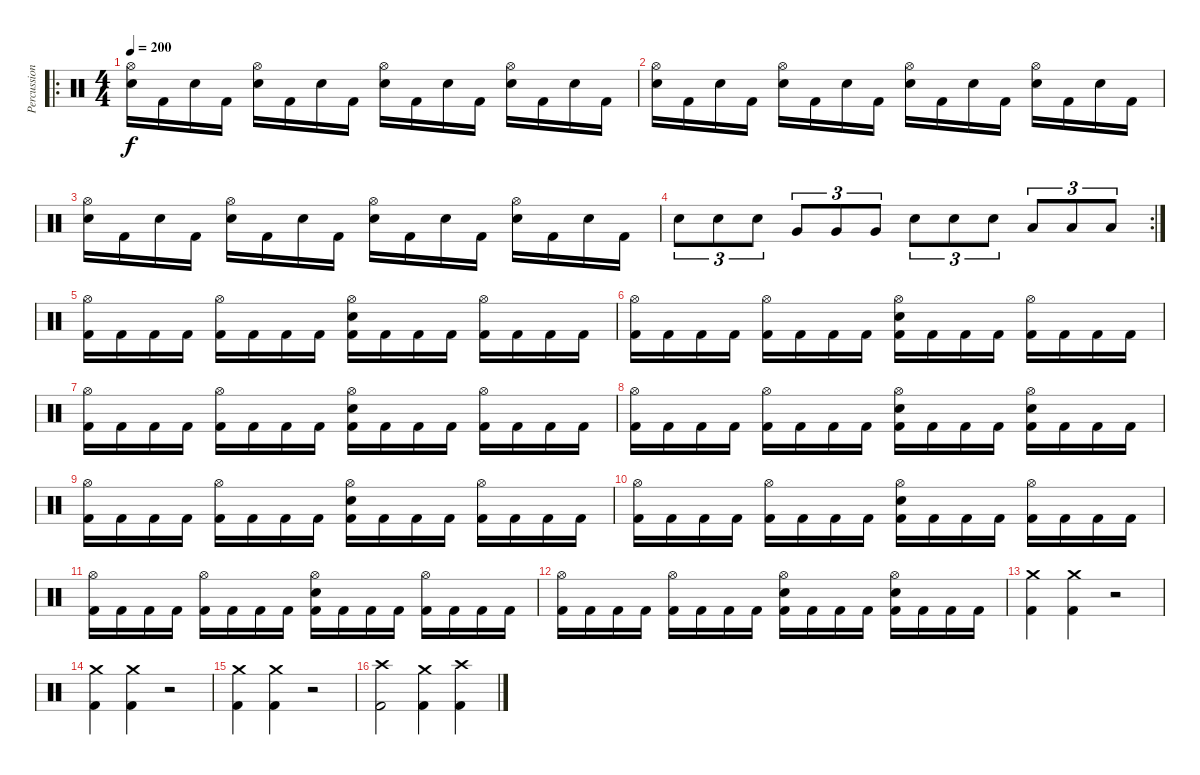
\track ("Percussions" "Percussion") {instrument percussion}
\staff {score}
\articulation defaults
\ro
\ts (4 4)
\tempo 200
\clef neutral
\ks c
("Hi-Hat (open)" "Snare (hit) 2").16{dy f} "Kick (hit) 2".16 "Snare (hit) 2".16 "Kick (hit) 2".16 ("Hi-Hat (open)" "Snare (hit) 2").16 "Kick (hit) 2".16 "Snare (hit) 2".16 "Kick (hit) 2".16 ("Hi-Hat (open)" "Snare (hit) 2").16 "Kick (hit) 2".16 "Snare (hit) 2".16 "Kick (hit) 2".16 ("Hi-Hat (open)" "Snare (hit) 2").16 "Kick (hit) 2".16 "Snare (hit) 2".16 "Kick (hit) 2".16 |
("Hi-Hat (open)" "Snare (hit) 2").16 "Kick (hit) 2".16 "Snare (hit) 2".16 "Kick (hit) 2".16 ("Hi-Hat (open)" "Snare (hit) 2").16 "Kick (hit) 2".16 "Snare (hit) 2".16 "Kick (hit) 2".16 ("Hi-Hat (open)" "Snare (hit) 2").16 "Kick (hit) 2".16 "Snare (hit) 2".16 "Kick (hit) 2".16 ("Hi-Hat (open)" "Snare (hit) 2").16 "Kick (hit) 2".16 "Snare (hit) 2".16 "Kick (hit) 2".16 |
("Hi-Hat (open)" "Snare (hit) 2").16 "Kick (hit) 2".16 "Snare (hit) 2".16 "Kick (hit) 2".16 ("Hi-Hat (open)" "Snare (hit) 2").16 "Kick (hit) 2".16 "Snare (hit) 2".16 "Kick (hit) 2".16 ("Hi-Hat (open)" "Snare (hit) 2").16 "Kick (hit) 2".16 "Snare (hit) 2".16 "Kick (hit) 2".16 ("Hi-Hat (open)" "Snare (hit) 2").16 "Kick (hit) 2".16 "Snare (hit) 2".16 "Kick (hit) 2".16 |
\rc 2 "Snare (hit) 2".8{tu (3 2)} "Snare (hit) 2".8{tu (3 2)} "Snare (hit) 2".8{tu (3 2)} "Very Low Tom (hit)".8{tu (3 2)} "Very Low Tom (hit)".8{tu (3 2)} "Very Low Tom (hit)".8{tu (3 2)} "Snare (hit) 2".8{tu (3 2)} "Snare (hit) 2".8{tu (3 2)} "Snare (hit) 2".8{tu (3 2)} "Low Tom (hit)".8{tu (3 2)} "Low Tom (hit)".8{tu (3 2)} "Low Tom (hit)".8{tu (3 2)}
|
("Hi-Hat (open)" "Kick (hit) 2").16 "Kick (hit) 2".16 "Kick (hit) 2".16 "Kick (hit) 2".16 ("Hi-Hat (open)" "Kick (hit) 2").16 "Kick (hit) 2".16 "Kick (hit) 2".16 "Kick (hit) 2".16 ("Hi-Hat (open)" "Snare (hit) 2" "Kick (hit) 2").16 "Kick (hit) 2".16 "Kick (hit) 2".16 "Kick (hit) 2".16 ("Hi-Hat (open)" "Kick (hit) 2").16 "Kick (hit) 2".16 "Kick (hit) 2".16 "Kick (hit) 2".16 |
("Hi-Hat (open)" "Kick (hit) 2").16 "Kick (hit) 2".16 "Kick (hit) 2".16 "Kick (hit) 2".16 ("Hi-Hat (open)" "Kick (hit) 2").16 "Kick (hit) 2".16 "Kick (hit) 2".16 "Kick (hit) 2".16 ("Hi-Hat (open)" "Snare (hit) 2" "Kick (hit) 2").16 "Kick (hit) 2".16 "Kick (hit) 2".16 "Kick (hit) 2".16 ("Hi-Hat (open)" "Kick (hit) 2").16 "Kick (hit) 2".16 "Kick (hit) 2".16 "Kick (hit) 2".16 |
("Hi-Hat (open)" "Kick (hit) 2").16 "Kick (hit) 2".16 "Kick (hit) 2".16 "Kick (hit) 2".16 ("Hi-Hat (open)" "Kick (hit) 2").16 "Kick (hit) 2".16 "Kick (hit) 2".16 "Kick (hit) 2".16 ("Hi-Hat (open)" "Snare (hit) 2" "Kick (hit) 2").16 "Kick (hit) 2".16 "Kick (hit) 2".16 "Kick (hit) 2".16 ("Hi-Hat (open)" "Kick (hit) 2").16 "Kick (hit) 2".16 "Kick (hit) 2".16 "Kick (hit) 2".16 |
("Hi-Hat (open)" "Kick (hit) 2").16 "Kick (hit) 2".16 "Kick (hit) 2".16 "Kick (hit) 2".16 ("Hi-Hat (open)" "Kick (hit) 2").16 "Kick (hit) 2".16 "Kick (hit) 2".16 "Kick (hit) 2".16 ("Hi-Hat (open)" "Snare (hit) 2" "Kick (hit) 2").16 "Kick (hit) 2".16 "Kick (hit) 2".16 "Kick (hit) 2".16 ("Hi-Hat (open)" "Snare (hit) 2" "Kick (hit) 2").16 "Kick (hit) 2".16 "Kick (hit) 2".16 "Kick (hit) 2".16 |
("Hi-Hat (open)" "Kick (hit) 2").16 "Kick (hit) 2".16 "Kick (hit) 2".16 "Kick (hit) 2".16 ("Hi-Hat (open)" "Kick (hit) 2").16 "Kick (hit) 2".16 "Kick (hit) 2".16 "Kick (hit) 2".16 ("Hi-Hat (open)" "Snare (hit) 2" "Kick (hit) 2").16 "Kick (hit) 2".16 "Kick (hit) 2".16 "Kick (hit) 2".16 ("Hi-Hat (open)" "Kick (hit) 2").16 "Kick (hit) 2".16 "Kick (hit) 2".16 "Kick (hit) 2".16 |
("Hi-Hat (open)" "Kick (hit) 2").16 "Kick (hit) 2".16 "Kick (hit) 2".16 "Kick (hit) 2".16 ("Hi-Hat (open)" "Kick (hit) 2").16 "Kick (hit) 2".16 "Kick (hit) 2".16 "Kick (hit) 2".16 ("Hi-Hat (open)" "Snare (hit) 2" "Kick (hit) 2").16 "Kick (hit) 2".16 "Kick (hit) 2".16 "Kick (hit) 2".16 ("Hi-Hat (open)" "Kick (hit) 2").16 "Kick (hit) 2".16 "Kick (hit) 2".16 "Kick (hit) 2".16 |
("Hi-Hat (open)" "Kick (hit) 2").16 "Kick (hit) 2".16 "Kick (hit) 2".16 "Kick (hit) 2".16 ("Hi-Hat (open)" "Kick (hit) 2").16 "Kick (hit) 2".16 "Kick (hit) 2".16 "Kick (hit) 2".16 ("Hi-Hat (open)" "Snare (hit) 2" "Kick (hit) 2").16 "Kick (hit) 2".16 "Kick (hit) 2".16 "Kick (hit) 2".16 ("Hi-Hat (open)" "Kick (hit) 2").16 "Kick (hit) 2".16 "Kick (hit) 2".16 "Kick (hit) 2".16 |
("Hi-Hat (open)" "Kick (hit) 2").16 "Kick (hit) 2".16 "Kick (hit) 2".16 "Kick (hit) 2".16 ("Hi-Hat (open)" "Kick (hit) 2").16 "Kick (hit) 2".16 "Kick (hit) 2".16 "Kick (hit) 2".16 ("Hi-Hat (open)" "Snare (hit) 2" "Kick (hit) 2").16 "Kick (hit) 2".16 "Kick (hit) 2".16 "Kick (hit) 2".16 ("Hi-Hat (open)" "Snare (hit) 2" "Kick (hit) 2").16 "Kick (hit) 2".16 "Kick (hit) 2".16 "Kick (hit) 2".16 |
("Crash medium (hit)" "Kick (hit) 2").4 ("Crash medium (hit)" "Kick (hit) 2").4 r.2 |
("Crash medium (hit)" "Kick (hit) 2").4 ("Crash medium (hit)" "Kick (hit) 2").4 r.2 |
("Crash medium (hit)" "Kick (hit) 2").4 ("Crash medium (hit)" "Kick (hit) 2").4 r.2 |
("Crash high (hit)" "Kick (hit) 2").2 ("Crash medium (hit)" "Kick (hit) 2").4 ("Crash high (hit)" "Kick (hit) 2").4
